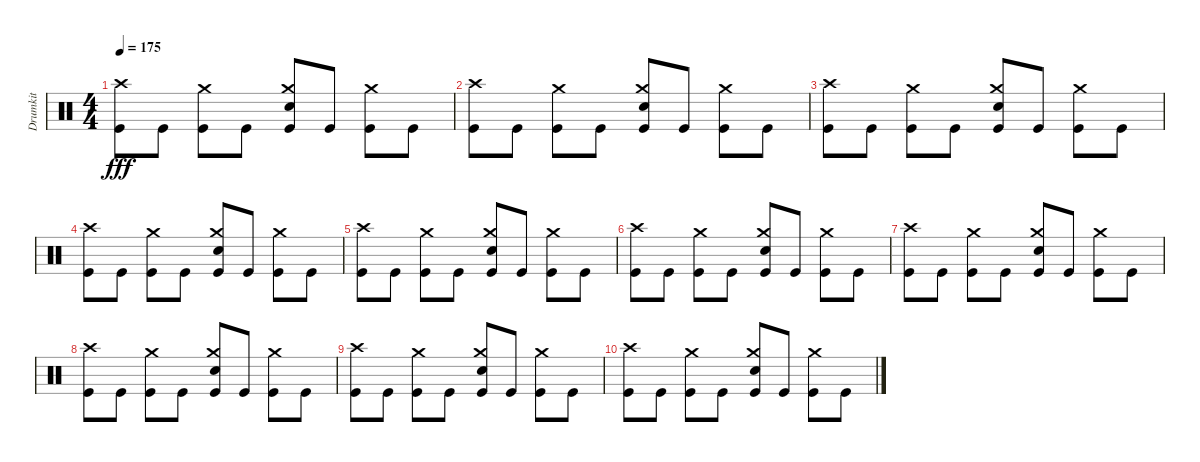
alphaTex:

\track ("Drumkit" "Drumkit") {instrument percussion}
\staff {score}
\articulation defaults
\ts (4 4)
\tempo 175
\clef neutral
\ks c
("Crash high (hit)" "Kick (hit)").8{dy fff} "Kick (hit)".8 ("Crash medium (hit)" "Kick (hit)").8 "Kick (hit)".8 ("Crash medium (hit)" "Snare (hit) 2" "Kick (hit)").8 "Kick (hit)".8 ("Crash medium (hit)" "Kick (hit)").8 "Kick (hit)".8 |
("Crash high (hit)" "Kick (hit)").8 "Kick (hit)".8 ("Crash medium (hit)" "Kick (hit)").8 "Kick (hit)".8 ("Crash medium (hit)" "Snare (hit) 2" "Kick (hit)").8 "Kick (hit)".8 ("Crash medium (hit)" "Kick (hit)").8 "Kick (hit)".8 |
("Crash high (hit)" "Kick (hit)").8 "Kick (hit)".8 ("Crash medium (hit)" "Kick (hit)").8 "Kick (hit)".8 ("Crash medium (hit)" "Snare (hit) 2" "Kick (hit)").8 "Kick (hit)".8 ("Crash medium (hit)" "Kick (hit)").8 "Kick (hit)".8 |
("Crash high (hit)" "Kick (hit)").8 "Kick (hit)".8 ("Crash medium (hit)" "Kick (hit)").8 "Kick (hit)".8 ("Crash medium (hit)" "Snare (hit) 2" "Kick (hit)").8 "Kick (hit)".8 ("Crash medium (hit)" "Kick (hit)").8 "Kick (hit)".8 |
("Crash high (hit)" "Kick (hit)").8 "Kick (hit)".8 ("Crash medium (hit)" "Kick (hit)").8 "Kick (hit)".8 ("Crash medium (hit)" "Snare (hit) 2" "Kick (hit)").8 "Kick (hit)".8 ("Crash medium (hit)" "Kick (hit)").8 "Kick (hit)".8 |
("Crash high (hit)" "Kick (hit)").8 "Kick (hit)".8 ("Crash medium (hit)" "Kick (hit)").8 "Kick (hit)".8 ("Crash medium (hit)" "Snare (hit) 2" "Kick (hit)").8 "Kick (hit)".8 ("Crash medium (hit)" "Kick (hit)").8 "Kick (hit)".8 |
("Crash high (hit)" "Kick (hit)").8 "Kick (hit)".8 ("Crash medium (hit)" "Kick (hit)").8 "Kick (hit)".8 ("Crash medium (hit)" "Snare (hit) 2" "Kick (hit)").8 "Kick (hit)".8 ("Crash medium (hit)" "Kick (hit)").8 "Kick (hit)".8 |
("Crash high (hit)" "Kick (hit)").8 "Kick (hit)".8 ("Crash medium (hit)" "Kick (hit)").8 "Kick (hit)".8 ("Crash medium (hit)" "Snare (hit) 2" "Kick (hit)").8 "Kick (hit)".8 ("Crash medium (hit)" "Kick (hit)").8 "Kick (hit)".8 |
("Crash high (hit)" "Kick (hit)").8 "Kick (hit)".8 ("Crash medium (hit)" "Kick (hit)").8 "Kick (hit)".8 ("Crash medium (hit)" "Snare (hit) 2" "Kick (hit)").8 "Kick (hit)".8 ("Crash medium (hit)" "Kick (hit)").8 "Kick (hit)".8 |
("Crash high (hit)" "Kick (hit)").8 "Kick (hit)".8 ("Crash medium (hit)" "Kick (hit)").8 "Kick (hit)".8 ("Crash medium (hit)" "Snare (hit) 2" "Kick (hit)").8 "Kick (hit)".8 ("Crash medium (hit)" "Kick (hit)").8 "Kick (hit)".8
